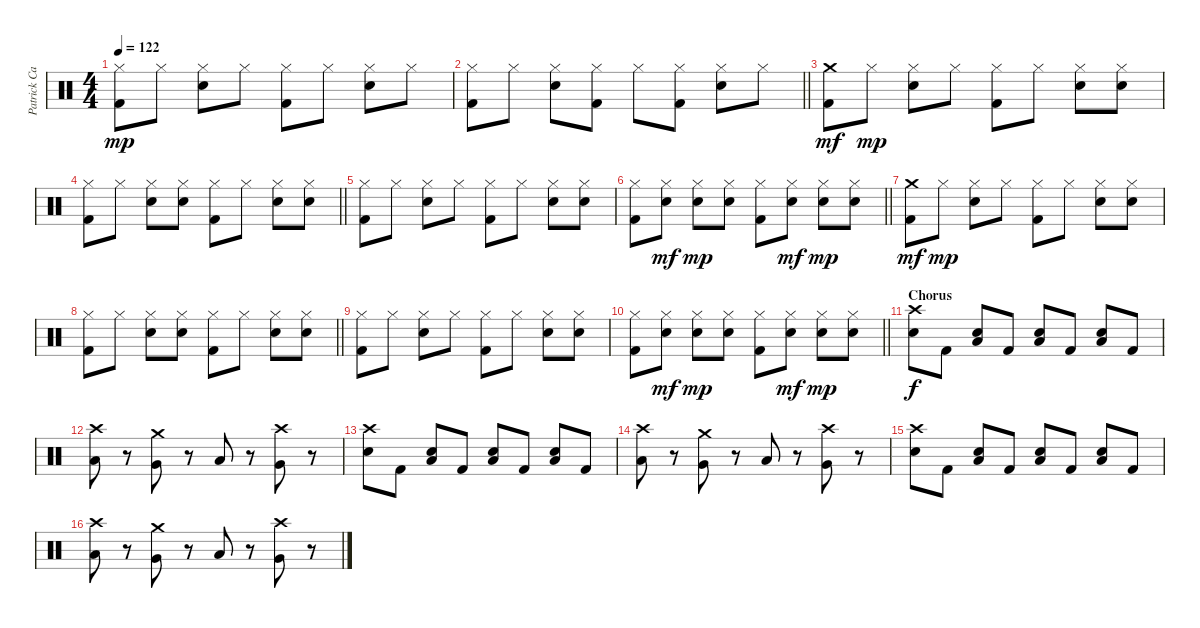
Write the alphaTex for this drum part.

\track ("Patrick Carney" "Patrick Ca") {instrument percussion}
\staff {score}
\articulation defaults
\ts (4 4)
\tempo 122
\clef neutral
\ks c
("Hi-Hat (closed)" "Kick (hit) 2").8{dy mp} "Hi-Hat (closed)".8 ("Hi-Hat (closed)" "Electric Snare (hit)").8 "Hi-Hat (closed)".8 ("Hi-Hat (closed)" "Kick (hit) 2").8 "Hi-Hat (closed)".8 ("Hi-Hat (closed)" "Electric Snare (hit)").8 "Hi-Hat (closed)".8 |
\barLineRight lightlight
("Hi-Hat (closed)" "Kick (hit) 2").8 "Hi-Hat (closed)".8 ("Hi-Hat (closed)" "Electric Snare (hit)").8 ("Hi-Hat (closed)" "Kick (hit) 2").8 "Hi-Hat (closed)".8 ("Hi-Hat (closed)" "Kick (hit) 2").8 ("Hi-Hat (closed)" "Electric Snare (hit)").8 "Hi-Hat (closed)".8 |
\section ("" "")
("Crash medium (hit)" "Kick (hit) 2").8{dy mf} "Hi-Hat (closed)".8{dy mp} ("Hi-Hat (closed)" "Electric Snare (hit)").8 "Hi-Hat (closed)".8 ("Hi-Hat (closed)" "Kick (hit) 2").8 "Hi-Hat (closed)".8 ("Hi-Hat (closed)" "Electric Snare (hit)").8 ("Hi-Hat (closed)" "Electric Snare (hit)").8 |
\barLineRight lightlight
("Hi-Hat (closed)" "Kick (hit) 2").8 "Hi-Hat (closed)".8 ("Hi-Hat (closed)" "Electric Snare (hit)").8 ("Hi-Hat (closed)" "Electric Snare (hit)").8 ("Hi-Hat (closed)" "Kick (hit) 2").8 "Hi-Hat (closed)".8 ("Hi-Hat (closed)" "Electric Snare (hit)").8 ("Hi-Hat (closed)" "Electric Snare (hit)").8 |
("Hi-Hat (closed)" "Kick (hit) 2").8 "Hi-Hat (closed)".8 ("Hi-Hat (closed)" "Electric Snare (hit)").8 "Hi-Hat (closed)".8 ("Hi-Hat (closed)" "Kick (hit) 2").8 "Hi-Hat (closed)".8 ("Hi-Hat (closed)" "Electric Snare (hit)").8 ("Hi-Hat (closed)" "Electric Snare (hit)").8 |
\barLineRight lightlight
("Hi-Hat (closed)" "Kick (hit) 2").8 ("Hi-Hat (closed)" "Electric Snare (hit)").8{dy mf} ("Hi-Hat (closed)" "Electric Snare (hit)").8{dy mp} ("Hi-Hat (closed)" "Electric Snare (hit)").8 ("Hi-Hat (closed)" "Kick (hit) 2").8 ("Hi-Hat (closed)" "Electric Snare (hit)").8{dy mf} ("Hi-Hat (closed)" "Electric Snare (hit)").8{dy mp} ("Hi-Hat (closed)" "Electric Snare (hit)").8 |
("Crash medium (hit)" "Kick (hit) 2").8{dy mf} "Hi-Hat (closed)".8{dy mp} ("Hi-Hat (closed)" "Electric Snare (hit)").8 "Hi-Hat (closed)".8 ("Hi-Hat (closed)" "Kick (hit) 2").8 "Hi-Hat (closed)".8 ("Hi-Hat (closed)" "Electric Snare (hit)").8 ("Hi-Hat (closed)" "Electric Snare (hit)").8 |
\barLineRight lightlight
("Hi-Hat (closed)" "Kick (hit) 2").8 "Hi-Hat (closed)".8 ("Hi-Hat (closed)" "Electric Snare (hit)").8 ("Hi-Hat (closed)" "Electric Snare (hit)").8 ("Hi-Hat (closed)" "Kick (hit) 2").8 "Hi-Hat (closed)".8 ("Hi-Hat (closed)" "Electric Snare (hit)").8 ("Hi-Hat (closed)" "Electric Snare (hit)").8 |
("Hi-Hat (closed)" "Kick (hit) 2").8 "Hi-Hat (closed)".8 ("Hi-Hat (closed)" "Electric Snare (hit)").8 "Hi-Hat (closed)".8 ("Hi-Hat (closed)" "Kick (hit) 2").8 "Hi-Hat (closed)".8 ("Hi-Hat (closed)" "Electric Snare (hit)").8 ("Hi-Hat (closed)" "Electric Snare (hit)").8 |
\barLineRight lightlight
("Hi-Hat (closed)" "Kick (hit) 2").8 ("Hi-Hat (closed)" "Electric Snare (hit)").8{dy mf} ("Hi-Hat (closed)" "Electric Snare (hit)").8{dy mp} ("Hi-Hat (closed)" "Electric Snare (hit)").8 ("Hi-Hat (closed)" "Kick (hit) 2").8 ("Hi-Hat (closed)" "Electric Snare (hit)").8{dy mf} ("Hi-Hat (closed)" "Electric Snare (hit)").8{dy mp} ("Hi-Hat (closed)" "Electric Snare (hit)").8 |
\section ("" "Chorus")
("Crash high (hit)" "Electric Snare (hit)").8{dy f} "Kick (hit) 2".8 ("Electric Snare (hit)" "Low Floor Tom (hit)").8 "Kick (hit) 2".8 ("Electric Snare (hit)" "Low Floor Tom (hit)").8 "Kick (hit) 2".8 ("Electric Snare (hit)" "Low Floor Tom (hit)").8 "Kick (hit) 2".8 |
("Crash high (hit)" "Low Floor Tom (hit)").8 r.8 ("Crash medium (hit)" "Very Low Tom (hit)").8 r.8 "Low Floor Tom (hit)".8 r.8 ("Crash high (hit)" "Very Low Tom (hit)").8 r.8 |
("Crash high (hit)" "Electric Snare (hit)").8 "Kick (hit) 2".8 ("Electric Snare (hit)" "Low Floor Tom (hit)").8 "Kick (hit) 2".8 ("Electric Snare (hit)" "Low Floor Tom (hit)").8 "Kick (hit) 2".8 ("Electric Snare (hit)" "Low Floor Tom (hit)").8 "Kick (hit) 2".8 |
("Crash high (hit)" "Low Floor Tom (hit)").8 r.8 ("Crash medium (hit)" "Very Low Tom (hit)").8 r.8 "Low Floor Tom (hit)".8 r.8 ("Crash high (hit)" "Very Low Tom (hit)").8 r.8 |
("Crash high (hit)" "Electric Snare (hit)").8 "Kick (hit) 2".8 ("Electric Snare (hit)" "Low Floor Tom (hit)").8 "Kick (hit) 2".8 ("Electric Snare (hit)" "Low Floor Tom (hit)").8 "Kick (hit) 2".8 ("Electric Snare (hit)" "Low Floor Tom (hit)").8 "Kick (hit) 2".8 |
("Crash high (hit)" "Low Floor Tom (hit)").8 r.8 ("Crash medium (hit)" "Very Low Tom (hit)").8 r.8 "Low Floor Tom (hit)".8 r.8 ("Crash high (hit)" "Very Low Tom (hit)").8 r.8
